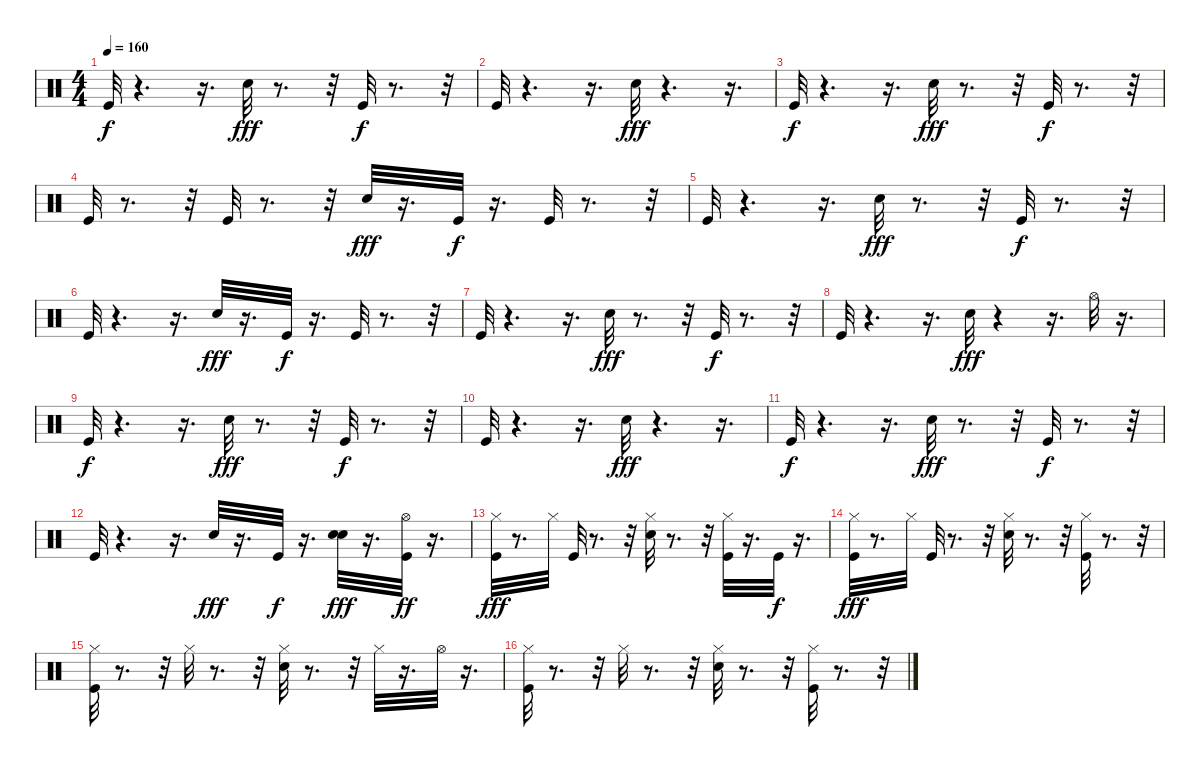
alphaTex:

\track "" {instrument percussion}
\staff {score}
\articulation defaults
\ts (4 4)
\tempo 160
\clef neutral
\ks c "Kick (hit)".32{dy f}
r.4{d} r.16{d} "Electric Snare (hit)".32{dy fff} r.8{d} r.32 "Kick (hit)".32{dy f} r.8{d} r.32 |
"Kick (hit)".32 r.4{d} r.16{d} "Electric Snare (hit)".32{dy fff} r.4{d} r.16{d} |
"Kick (hit)".32{dy f} r.4{d} r.16{d} "Electric Snare (hit)".32{dy fff} r.8{d} r.32 "Kick (hit)".32{dy f} r.8{d} r.32 |
"Kick (hit)".32 r.8{d} r.32 "Kick (hit)".32 r.8{d} r.32 "Electric Snare (hit)".32{dy fff} r.16{d} "Kick (hit)".32{dy f} r.16{d} "Kick (hit)".32 r.8{d} r.32 |
"Kick (hit)".32 r.4{d} r.16{d} "Electric Snare (hit)".32{dy fff} r.8{d} r.32 "Kick (hit)".32{dy f} r.8{d} r.32 |
"Kick (hit)".32 r.4{d} r.16{d} "Electric Snare (hit)".32{dy fff} r.16{d} "Kick (hit)".32{dy f} r.16{d} "Kick (hit)".32 r.8{d} r.32 |
"Kick (hit)".32 r.4{d} r.16{d} "Electric Snare (hit)".32{dy fff} r.8{d} r.32 "Kick (hit)".32{dy f} r.8{d} r.32 |
"Kick (hit)".32 r.4{d} r.16{d} "Electric Snare (hit)".32{dy fff} r.4 r.16{d} "Hi-Hat (open)".32 r.16{d} |
"Kick (hit)".32{dy f} r.4{d} r.16{d} "Electric Snare (hit)".32{dy fff} r.8{d} r.32 "Kick (hit)".32{dy f} r.8{d} r.32 |
"Kick (hit)".32 r.4{d} r.16{d} "Electric Snare (hit)".32{dy fff} r.4{d} r.16{d} |
"Kick (hit)".32{dy f} r.4{d} r.16{d} "Electric Snare (hit)".32{dy fff} r.8{d} r.32 "Kick (hit)".32{dy f} r.8{d} r.32 |
"Kick (hit)".32 r.4{d} r.16{d} "Electric Snare (hit)".32{dy fff} r.16{d} "Kick (hit)".32{dy f} r.16{d} ("Electric Snare (hit)" "Electric Snare (hit)").32{dy fff} r.16{d} ("Hi-Hat (open)" "Kick (hit)").32{dy ff} r.16{d} |
("Hi-Hat (closed)" "Kick (hit)").32{dy fff} r.8{d} "Hi-Hat (closed)".32 "Kick (hit)".32 r.8{d} r.32 ("Hi-Hat (closed)" "Electric Snare (hit)").32 r.8{d} r.32 ("Hi-Hat (closed)" "Kick (hit)").32 r.16{d} "Kick (hit)".32{dy f} r.16{d} |
("Hi-Hat (closed)" "Kick (hit)").32{dy fff} r.8{d} "Hi-Hat (closed)".32 "Kick (hit)".32 r.8{d} r.32 ("Electric Snare (hit)" "Hi-Hat (closed)").32 r.8{d} r.32 ("Hi-Hat (closed)" "Kick (hit)").32 r.8{d} r.32 |
("Hi-Hat (closed)" "Kick (hit)").32 r.8{d} r.32 "Hi-Hat (closed)".32 r.8{d} r.32 ("Electric Snare (hit)" "Hi-Hat (closed)").32 r.8{d} r.32 "Hi-Hat (closed)".32 r.16{d} "Hi-Hat (open)".32 r.16{d} |
("Kick (hit)" "Hi-Hat (closed)").32 r.8{d} r.32 "Hi-Hat (closed)".32 r.8{d} r.32 ("Hi-Hat (closed)" "Electric Snare (hit)").32 r.8{d} r.32 ("Hi-Hat (closed)" "Kick (hit)").32 r.8{d} r.32
